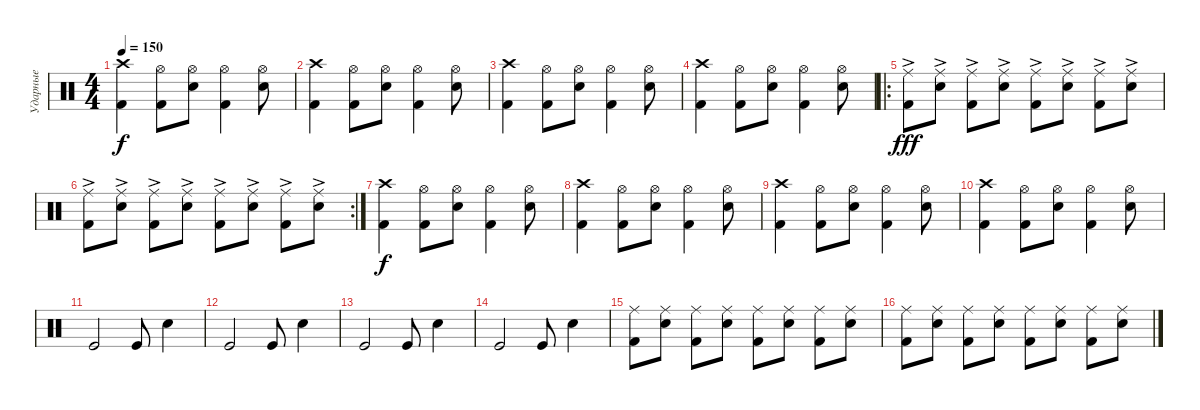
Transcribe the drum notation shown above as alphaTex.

\track ("Ударные" "Ударные") {instrument percussion}
\staff {score}
\articulation defaults
\ts (4 4)
\tempo 150
\clef neutral
\ks c
("Crash high (hit)" "Kick (hit) 2").4{dy f} ("Hi-Hat (open)" "Kick (hit) 2").8 ("Hi-Hat (open)" "Snare (hit) 2").8 ("Hi-Hat (open)" "Kick (hit) 2").4 ("Hi-Hat (open)" "Snare (hit) 2").8 |
("Crash high (hit)" "Kick (hit) 2").4 ("Hi-Hat (open)" "Kick (hit) 2").8 ("Hi-Hat (open)" "Snare (hit) 2").8 ("Hi-Hat (open)" "Kick (hit) 2").4 ("Hi-Hat (open)" "Snare (hit) 2").8 |
("Crash high (hit)" "Kick (hit) 2").4 ("Hi-Hat (open)" "Kick (hit) 2").8 ("Hi-Hat (open)" "Snare (hit) 2").8 ("Hi-Hat (open)" "Kick (hit) 2").4 ("Hi-Hat (open)" "Snare (hit) 2").8 |
("Crash high (hit)" "Kick (hit) 2").4 ("Hi-Hat (open)" "Kick (hit) 2").8 ("Hi-Hat (open)" "Snare (hit) 2").8 ("Hi-Hat (open)" "Kick (hit) 2").4 ("Hi-Hat (open)" "Snare (hit) 2").8 |
\ro
("Ride (middle)"{ac} "Kick (hit) 2"{ac}).8{dy fff} ("Ride (middle)"{ac} "Snare (hit) 2"{ac}).8 ("Ride (middle)"{ac} "Kick (hit) 2"{ac}).8 ("Ride (middle)"{ac} "Snare (hit) 2"{ac}).8 ("Ride (middle)"{ac} "Kick (hit) 2"{ac}).8 ("Ride (middle)"{ac} "Snare (hit) 2"{ac}).8 ("Ride (middle)"{ac} "Kick (hit) 2"{ac}).8 ("Ride (middle)"{ac} "Snare (hit) 2"{ac}).8 |
\rc 2
("Ride (middle)"{ac} "Kick (hit) 2"{ac}).8 ("Ride (middle)"{ac} "Snare (hit) 2"{ac}).8 ("Ride (middle)"{ac} "Kick (hit) 2"{ac}).8 ("Ride (middle)"{ac} "Snare (hit) 2"{ac}).8 ("Ride (middle)"{ac} "Kick (hit) 2"{ac}).8 ("Ride (middle)"{ac} "Snare (hit) 2"{ac}).8 ("Ride (middle)"{ac} "Kick (hit) 2"{ac}).8 ("Ride (middle)"{ac} "Snare (hit) 2"{ac}).8 |
("Crash high (hit)" "Kick (hit) 2").4{dy f} ("Hi-Hat (open)" "Kick (hit) 2").8 ("Hi-Hat (open)" "Snare (hit) 2").8 ("Hi-Hat (open)" "Kick (hit) 2").4 ("Hi-Hat (open)" "Snare (hit) 2").8 |
("Crash high (hit)" "Kick (hit) 2").4 ("Hi-Hat (open)" "Kick (hit) 2").8 ("Hi-Hat (open)" "Snare (hit) 2").8 ("Hi-Hat (open)" "Kick (hit) 2").4 ("Hi-Hat (open)" "Snare (hit) 2").8 |
("Crash high (hit)" "Kick (hit) 2").4 ("Hi-Hat (open)" "Kick (hit) 2").8 ("Hi-Hat (open)" "Snare (hit) 2").8 ("Hi-Hat (open)" "Kick (hit) 2").4 ("Hi-Hat (open)" "Snare (hit) 2").8 |
("Crash high (hit)" "Kick (hit) 2").4 ("Hi-Hat (open)" "Kick (hit) 2").8 ("Hi-Hat (open)" "Snare (hit) 2").8 ("Hi-Hat (open)" "Kick (hit) 2").4 ("Hi-Hat (open)" "Snare (hit) 2").8 |
"Kick (hit)".2 "Kick (hit)".8 "Electric Snare (hit)".4 |
"Kick (hit)".2 "Kick (hit)".8 "Electric Snare (hit)".4 |
"Kick (hit)".2 "Kick (hit)".8 "Electric Snare (hit)".4 |
"Kick (hit)".2 "Kick (hit)".8 "Electric Snare (hit)".4 |
("Ride (middle)" "Kick (hit) 2").8 ("Ride (middle)" "Snare (hit) 2").8 ("Ride (middle)" "Kick (hit) 2").8 ("Ride (middle)" "Snare (hit) 2").8 ("Ride (middle)" "Kick (hit) 2").8 ("Ride (middle)" "Snare (hit) 2").8 ("Ride (middle)" "Kick (hit) 2").8 ("Ride (middle)" "Snare (hit) 2").8 |
("Ride (middle)" "Kick (hit) 2").8 ("Ride (middle)" "Snare (hit) 2").8 ("Ride (middle)" "Kick (hit) 2").8 ("Ride (middle)" "Snare (hit) 2").8 ("Ride (middle)" "Kick (hit) 2").8 ("Ride (middle)" "Snare (hit) 2").8 ("Ride (middle)" "Kick (hit) 2").8 ("Ride (middle)" "Snare (hit) 2").8
